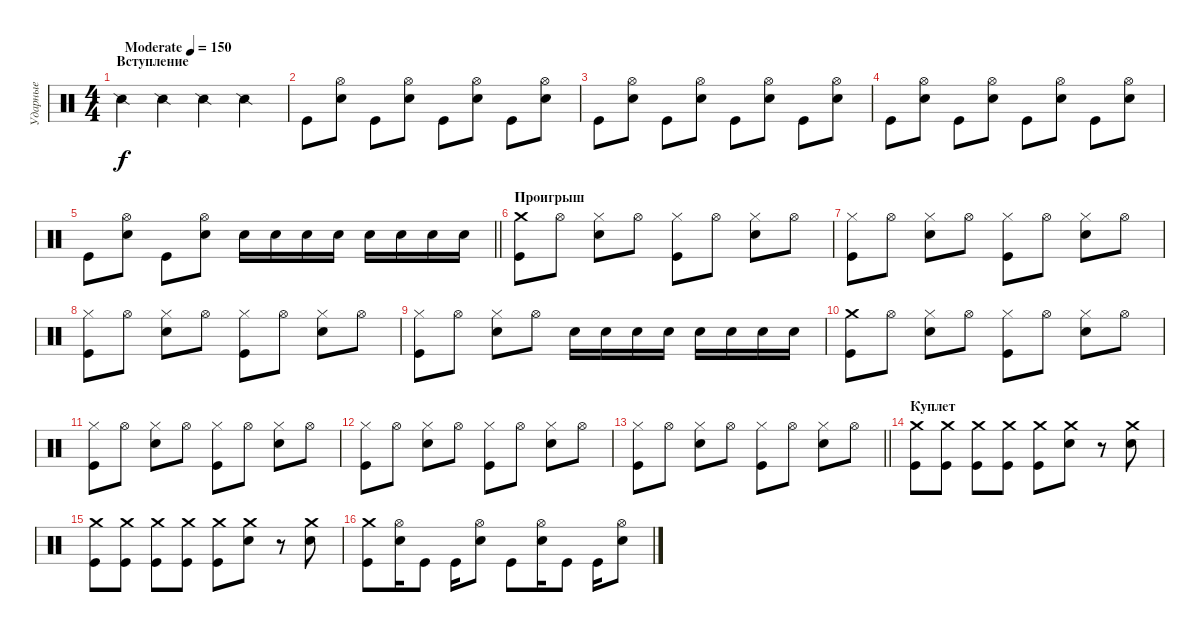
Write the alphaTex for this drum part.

\track ("Ударные" "Ударные") {instrument percussion}
\staff {score}
\articulation defaults
\ts (4 4)
\section ("" "Вступление")
\tempo (150 "Moderate")
\clef neutral
\ks c "Snare (side stick) 2".4{dy f} "Snare (side stick) 2".4 "Snare (side stick) 2".4 "Snare (side stick) 2".4
|
"Kick (hit)".8 ("Hi-Hat (open)" "Electric Snare (hit)").8 "Kick (hit)".8 ("Hi-Hat (open)" "Electric Snare (hit)").8 "Kick (hit)".8 ("Hi-Hat (open)" "Electric Snare (hit)").8 "Kick (hit)".8 ("Hi-Hat (open)" "Electric Snare (hit)").8 |
"Kick (hit)".8 ("Hi-Hat (open)" "Electric Snare (hit)").8 "Kick (hit)".8 ("Hi-Hat (open)" "Electric Snare (hit)").8 "Kick (hit)".8 ("Hi-Hat (open)" "Electric Snare (hit)").8 "Kick (hit)".8 ("Hi-Hat (open)" "Electric Snare (hit)").8 |
"Kick (hit)".8 ("Hi-Hat (open)" "Electric Snare (hit)").8 "Kick (hit)".8 ("Hi-Hat (open)" "Electric Snare (hit)").8 "Kick (hit)".8 ("Hi-Hat (open)" "Electric Snare (hit)").8 "Kick (hit)".8 ("Hi-Hat (open)" "Electric Snare (hit)").8 |
\barLineRight lightlight "Kick (hit)".8
("Hi-Hat (open)" "Electric Snare (hit)").8 "Kick (hit)".8 ("Hi-Hat (open)" "Electric Snare (hit)").8 "Electric Snare (hit)".16 "Electric Snare (hit)".16 "Electric Snare (hit)".16 "Electric Snare (hit)".16 "Electric Snare (hit)".16 "Electric Snare (hit)".16 "Electric Snare (hit)".16 "Electric Snare (hit)".16 |
\section ("" "Проигрыш")
("Crash medium (hit)" "Kick (hit)").8 "Hi-Hat (open)".8 ("Hi-Hat (closed)" "Electric Snare (hit)").8 "Hi-Hat (open)".8 ("Hi-Hat (closed)" "Kick (hit)").8 "Hi-Hat (open)".8 ("Hi-Hat (closed)" "Electric Snare (hit)").8 "Hi-Hat (open)".8 |
("Hi-Hat (closed)" "Kick (hit)").8 "Hi-Hat (open)".8 ("Hi-Hat (closed)" "Electric Snare (hit)").8 "Hi-Hat (open)".8 ("Hi-Hat (closed)" "Kick (hit)").8 "Hi-Hat (open)".8 ("Hi-Hat (closed)" "Electric Snare (hit)").8 "Hi-Hat (open)".8 |
("Hi-Hat (closed)" "Kick (hit)").8 "Hi-Hat (open)".8 ("Hi-Hat (closed)" "Electric Snare (hit)").8 "Hi-Hat (open)".8 ("Hi-Hat (closed)" "Kick (hit)").8 "Hi-Hat (open)".8 ("Hi-Hat (closed)" "Electric Snare (hit)").8 "Hi-Hat (open)".8 |
("Hi-Hat (closed)" "Kick (hit)").8 "Hi-Hat (open)".8 ("Hi-Hat (closed)" "Electric Snare (hit)").8 "Hi-Hat (open)".8 "Electric Snare (hit)".16 "Electric Snare (hit)".16 "Electric Snare (hit)".16 "Electric Snare (hit)".16 "Electric Snare (hit)".16 "Electric Snare (hit)".16 "Electric Snare (hit)".16 "Electric Snare (hit)".16 |
("Crash medium (hit)" "Kick (hit)").8 "Hi-Hat (open)".8 ("Hi-Hat (closed)" "Electric Snare (hit)").8 "Hi-Hat (open)".8 ("Hi-Hat (closed)" "Kick (hit)").8 "Hi-Hat (open)".8 ("Hi-Hat (closed)" "Electric Snare (hit)").8 "Hi-Hat (open)".8 |
("Hi-Hat (closed)" "Kick (hit)").8 "Hi-Hat (open)".8 ("Hi-Hat (closed)" "Electric Snare (hit)").8 "Hi-Hat (open)".8 ("Hi-Hat (closed)" "Kick (hit)").8 "Hi-Hat (open)".8 ("Hi-Hat (closed)" "Electric Snare (hit)").8 "Hi-Hat (open)".8 |
("Hi-Hat (closed)" "Kick (hit)").8 "Hi-Hat (open)".8 ("Hi-Hat (closed)" "Electric Snare (hit)").8 "Hi-Hat (open)".8 ("Hi-Hat (closed)" "Kick (hit)").8 "Hi-Hat (open)".8 ("Hi-Hat (closed)" "Electric Snare (hit)").8 "Hi-Hat (open)".8 |
\barLineRight lightlight
("Hi-Hat (closed)" "Kick (hit)").8 "Hi-Hat (open)".8 ("Hi-Hat (closed)" "Electric Snare (hit)").8 "Hi-Hat (open)".8 ("Hi-Hat (closed)" "Kick (hit)").8 "Hi-Hat (open)".8 ("Hi-Hat (closed)" "Electric Snare (hit)").8 "Hi-Hat (open)".8 |
\section ("" "Куплет")
("Crash medium (hit)" "Kick (hit)").8 ("Crash medium (hit)" "Kick (hit)").8 ("Crash medium (hit)" "Kick (hit)").8 ("Crash medium (hit)" "Kick (hit)").8 ("Crash medium (hit)" "Kick (hit)").8 ("Crash medium (hit)" "Electric Snare (hit)").8 r.8 ("Crash medium (hit)" "Electric Snare (hit)").8 |
("Crash medium (hit)" "Kick (hit)").8 ("Crash medium (hit)" "Kick (hit)").8 ("Crash medium (hit)" "Kick (hit)").8 ("Crash medium (hit)" "Kick (hit)").8 ("Crash medium (hit)" "Kick (hit)").8 ("Crash medium (hit)" "Electric Snare (hit)").8 r.8 ("Crash medium (hit)" "Electric Snare (hit)").8 |
("Crash medium (hit)" "Kick (hit)").8 ("Hi-Hat (open)" "Electric Snare (hit)").16 "Kick (hit)".8 "Kick (hit)".16 ("Hi-Hat (open)" "Electric Snare (hit)").8 "Kick (hit)".8 ("Hi-Hat (open)" "Electric Snare (hit)").16 "Kick (hit)".8 "Kick (hit)".16 ("Hi-Hat (open)" "Electric Snare (hit)").8
